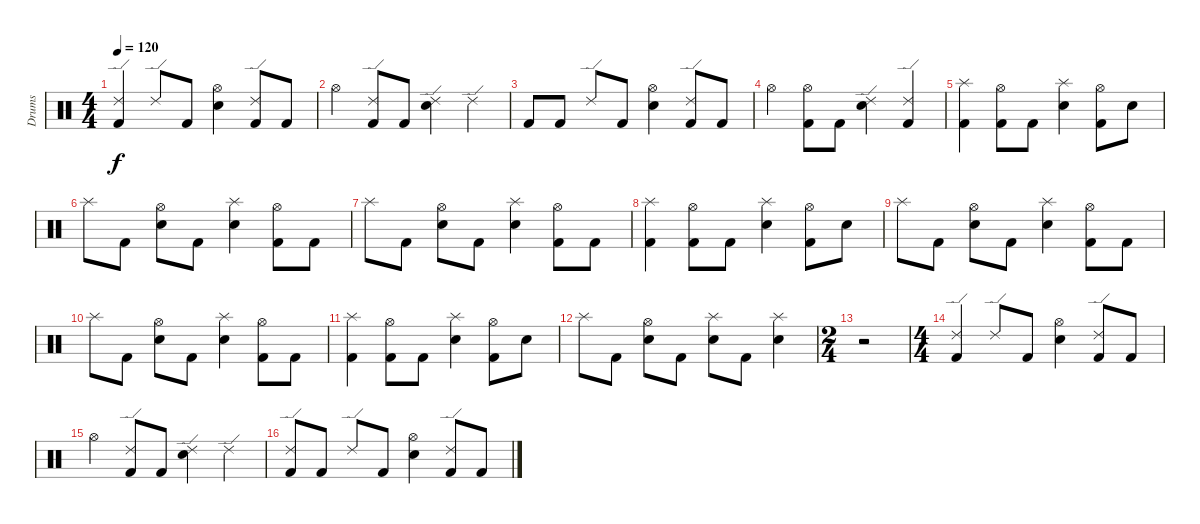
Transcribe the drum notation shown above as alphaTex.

\track ("Drums" "Drums") {instrument percussion}
\staff {score}
\articulation defaults
\ts (4 4)
\tempo 120
\clef neutral
\ks c
("Ride (edge) 2" "Kick (hit) 2").4{dy f} "Ride (edge) 2".8 "Kick (hit) 2".8 ("Hi-Hat (open)" "Snare (hit) 2").4 ("Ride (edge) 2" "Kick (hit) 2").8 "Kick (hit) 2".8 |
"Hi-Hat (open)".4 ("Ride (edge) 2" "Kick (hit) 2").8 "Kick (hit) 2".8 ("Ride (edge) 2" "Snare (hit) 2").4 "Ride (edge) 2".4 |
"Kick (hit) 2".8 "Kick (hit) 2".8 "Ride (edge) 2".8 "Kick (hit) 2".8 ("Hi-Hat (open)" "Snare (hit) 2").4 ("Ride (edge) 2" "Kick (hit) 2").8 "Kick (hit) 2".8 |
"Hi-Hat (open)".4 ("Hi-Hat (open)" "Kick (hit) 2").8 "Kick (hit) 2".8 ("Ride (edge) 2" "Snare (hit) 2").4 ("Ride (edge) 2" "Kick (hit) 2").4 |
("Splash (hit)" "Kick (hit) 2").4 ("Hi-Hat (open)" "Kick (hit) 2").8 "Kick (hit) 2".8 ("Splash (hit)" "Snare (hit) 2").4 ("Hi-Hat (open)" "Kick (hit) 2").8 "Snare (hit) 2".8 |
"Splash (hit)".8 "Kick (hit) 2".8 ("Hi-Hat (open)" "Snare (hit) 2").8 "Kick (hit) 2".8 ("Splash (hit)" "Snare (hit) 2").4 ("Hi-Hat (open)" "Kick (hit) 2").8 "Kick (hit) 2".8 |
"Splash (hit)".8 "Kick (hit) 2".8 ("Hi-Hat (open)" "Snare (hit) 2").8 "Kick (hit) 2".8 ("Splash (hit)" "Snare (hit) 2").4 ("Hi-Hat (open)" "Kick (hit) 2").8 "Kick (hit) 2".8 |
("Splash (hit)" "Kick (hit) 2").4 ("Hi-Hat (open)" "Kick (hit) 2").8 "Kick (hit) 2".8 ("Splash (hit)" "Snare (hit) 2").4 ("Hi-Hat (open)" "Kick (hit) 2").8 "Snare (hit) 2".8 |
"Splash (hit)".8 "Kick (hit) 2".8 ("Hi-Hat (open)" "Snare (hit) 2").8 "Kick (hit) 2".8 ("Splash (hit)" "Snare (hit) 2").4 ("Hi-Hat (open)" "Kick (hit) 2").8 "Kick (hit) 2".8 |
"Splash (hit)".8 "Kick (hit) 2".8 ("Hi-Hat (open)" "Snare (hit) 2").8 "Kick (hit) 2".8 ("Splash (hit)" "Snare (hit) 2").4 ("Hi-Hat (open)" "Kick (hit) 2").8 "Kick (hit) 2".8 |
("Splash (hit)" "Kick (hit) 2").4 ("Hi-Hat (open)" "Kick (hit) 2").8 "Kick (hit) 2".8 ("Splash (hit)" "Snare (hit) 2").4 ("Hi-Hat (open)" "Kick (hit) 2").8 "Snare (hit) 2".8 |
"Splash (hit)".8 "Kick (hit) 2".8 ("Hi-Hat (open)" "Snare (hit) 2").8 "Kick (hit) 2".8 ("Splash (hit)" "Snare (hit) 2").8 "Kick (hit) 2".8 ("Splash (hit)" "Snare (hit) 2").4 |
\ts (2 4)
r.2 |
\ts (4 4)
("Ride (edge) 2" "Kick (hit) 2").4 "Ride (edge) 2".8 "Kick (hit) 2".8 ("Hi-Hat (open)" "Snare (hit) 2").4 ("Ride (edge) 2" "Kick (hit) 2").8 "Kick (hit) 2".8 |
"Hi-Hat (open)".4 ("Ride (edge) 2" "Kick (hit) 2").8 "Kick (hit) 2".8 ("Ride (edge) 2" "Snare (hit) 2").4 "Ride (edge) 2".4 |
("Ride (edge) 2" "Kick (hit) 2").8 "Kick (hit) 2".8 "Ride (edge) 2".8 "Kick (hit) 2".8 ("Hi-Hat (open)" "Snare (hit) 2").4 ("Ride (edge) 2" "Kick (hit) 2").8 "Kick (hit) 2".8
